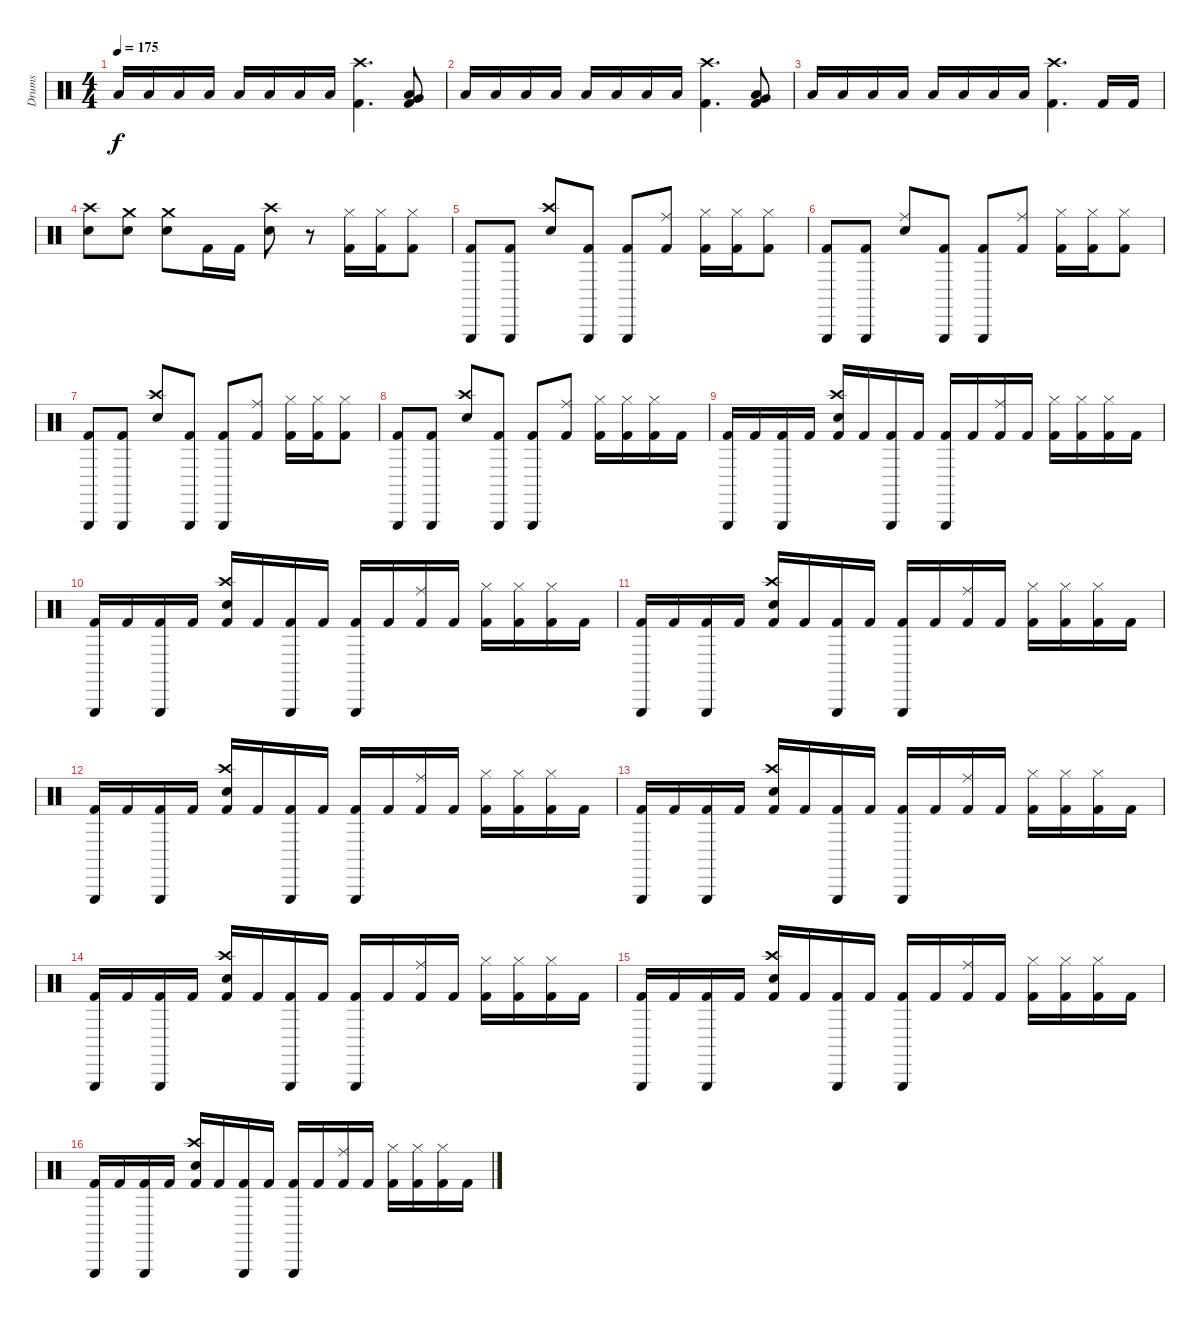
\track ("Drums" "Drums") {instrument percussion}
\staff {score}
\articulation defaults
\ts (4 4)
\tempo 175
\clef neutral
\ks c "Low Tom (hit)".16{dy f} "Low Tom (hit)".16 "Low Tom (hit)".16 "Low Tom (hit)".16 "Low Tom (hit)".16 "Low Tom (hit)".16 "Low Tom (hit)".16 "Low Tom (hit)".16
("Crash high (hit)" "Kick (hit) 2").4{d} ("Low Tom (hit)" "Very Low Tom (hit)" "Kick (hit) 2").8 |
"Low Tom (hit)".16 "Low Tom (hit)".16 "Low Tom (hit)".16 "Low Tom (hit)".16 "Low Tom (hit)".16 "Low Tom (hit)".16 "Low Tom (hit)".16 "Low Tom (hit)".16 ("Crash high (hit)" "Kick (hit) 2").4{d} ("Low Tom (hit)" "Very Low Tom (hit)" "Kick (hit) 2").8 |
"Low Tom (hit)".16 "Low Tom (hit)".16 "Low Tom (hit)".16 "Low Tom (hit)".16 "Low Tom (hit)".16 "Low Tom (hit)".16 "Low Tom (hit)".16 "Low Tom (hit)".16 ("Crash high (hit)" "Kick (hit) 2").4{d} "Kick (hit) 2".16 "Kick (hit) 2".16 |
("Crash high (hit)" "Snare (hit) 2").8 ("Crash medium (hit)" "Snare (hit) 2").8 ("Crash medium (hit)" "Snare (hit) 2").8 "Kick (hit) 2".16 "Kick (hit) 2".16 ("Crash high (hit)" "Snare (hit) 2").8 r.8 ("Hi-Hat (closed)" "Kick (hit) 2").16 ("Hi-Hat (closed)" "Kick (hit) 2").16 ("Hi-Hat (closed)" "Kick (hit) 2").8 |
("Triangle (hit)" "Kick (hit) 2").8 ("Triangle (hit)" "Kick (hit) 2").8 ("Crash high (hit)" "Snare (hit) 2").8 ("Triangle (hit)" "Kick (hit) 2").8 ("Triangle (hit)" "Kick (hit) 2").8 ("Ride (middle)" "Kick (hit) 2").8 ("Hi-Hat (closed)" "Kick (hit) 2").16 ("Hi-Hat (closed)" "Kick (hit) 2").16 ("Hi-Hat (closed)" "Kick (hit) 2").8 |
("Triangle (hit)" "Kick (hit) 2").8 ("Triangle (hit)" "Kick (hit) 2").8 ("Ride (middle)" "Snare (hit) 2").8 ("Triangle (hit)" "Kick (hit) 2").8 ("Triangle (hit)" "Kick (hit) 2").8 ("Ride (middle)" "Kick (hit) 2").8 ("Hi-Hat (closed)" "Kick (hit) 2").16 ("Hi-Hat (closed)" "Kick (hit) 2").16 ("Hi-Hat (closed)" "Kick (hit) 2").8 |
("Triangle (hit)" "Kick (hit) 2").8 ("Triangle (hit)" "Kick (hit) 2").8 ("Crash high (hit)" "Snare (hit) 2").8 ("Triangle (hit)" "Kick (hit) 2").8 ("Triangle (hit)" "Kick (hit) 2").8 ("Ride (middle)" "Kick (hit) 2").8 ("Hi-Hat (closed)" "Kick (hit) 2").16 ("Hi-Hat (closed)" "Kick (hit) 2").16 ("Hi-Hat (closed)" "Kick (hit) 2").8 |
("Triangle (hit)" "Kick (hit) 2").8 ("Triangle (hit)" "Kick (hit) 2").8 ("Crash high (hit)" "Snare (hit) 2").8 ("Triangle (hit)" "Kick (hit) 2").8 ("Triangle (hit)" "Kick (hit) 2").8 ("Ride (middle)" "Kick (hit) 2").8 ("Hi-Hat (closed)" "Kick (hit) 2").16 ("Hi-Hat (closed)" "Kick (hit) 2").16 ("Hi-Hat (closed)" "Kick (hit) 2").16 "Kick (hit) 2".16 |
("Triangle (hit)" "Kick (hit) 2").16 "Kick (hit) 2".16 ("Triangle (hit)" "Kick (hit) 2").16 "Kick (hit) 2".16 ("Crash high (hit)" "Snare (hit) 2" "Kick (hit) 2").16 "Kick (hit) 2".16 ("Triangle (hit)" "Kick (hit) 2").16 "Kick (hit) 2".16 ("Triangle (hit)" "Kick (hit) 2").16 "Kick (hit) 2".16 ("Ride (middle)" "Kick (hit) 2").16 "Kick (hit) 2".16 ("Hi-Hat (closed)" "Kick (hit) 2").16 ("Hi-Hat (closed)" "Kick (hit) 2").16 ("Hi-Hat (closed)" "Kick (hit) 2").16 "Kick (hit) 2".16 |
("Triangle (hit)" "Kick (hit) 2").16 "Kick (hit) 2".16 ("Triangle (hit)" "Kick (hit) 2").16 "Kick (hit) 2".16 ("Crash high (hit)" "Snare (hit) 2" "Kick (hit) 2").16 "Kick (hit) 2".16 ("Triangle (hit)" "Kick (hit) 2").16 "Kick (hit) 2".16 ("Triangle (hit)" "Kick (hit) 2").16 "Kick (hit) 2".16 ("Ride (middle)" "Kick (hit) 2").16 "Kick (hit) 2".16 ("Hi-Hat (closed)" "Kick (hit) 2").16 ("Hi-Hat (closed)" "Kick (hit) 2").16 ("Hi-Hat (closed)" "Kick (hit) 2").16 "Kick (hit) 2".16 |
("Triangle (hit)" "Kick (hit) 2").16 "Kick (hit) 2".16 ("Triangle (hit)" "Kick (hit) 2").16 "Kick (hit) 2".16 ("Crash high (hit)" "Snare (hit) 2" "Kick (hit) 2").16 "Kick (hit) 2".16 ("Triangle (hit)" "Kick (hit) 2").16 "Kick (hit) 2".16 ("Triangle (hit)" "Kick (hit) 2").16 "Kick (hit) 2".16 ("Ride (middle)" "Kick (hit) 2").16 "Kick (hit) 2".16 ("Hi-Hat (closed)" "Kick (hit) 2").16 ("Hi-Hat (closed)" "Kick (hit) 2").16 ("Hi-Hat (closed)" "Kick (hit) 2").16 "Kick (hit) 2".16 |
("Triangle (hit)" "Kick (hit) 2").16 "Kick (hit) 2".16 ("Triangle (hit)" "Kick (hit) 2").16 "Kick (hit) 2".16 ("Crash high (hit)" "Snare (hit) 2" "Kick (hit) 2").16 "Kick (hit) 2".16 ("Triangle (hit)" "Kick (hit) 2").16 "Kick (hit) 2".16 ("Triangle (hit)" "Kick (hit) 2").16 "Kick (hit) 2".16 ("Ride (middle)" "Kick (hit) 2").16 "Kick (hit) 2".16 ("Hi-Hat (closed)" "Kick (hit) 2").16 ("Hi-Hat (closed)" "Kick (hit) 2").16 ("Hi-Hat (closed)" "Kick (hit) 2").16 "Kick (hit) 2".16 |
("Triangle (hit)" "Kick (hit) 2").16 "Kick (hit) 2".16 ("Triangle (hit)" "Kick (hit) 2").16 "Kick (hit) 2".16 ("Crash high (hit)" "Snare (hit) 2" "Kick (hit) 2").16 "Kick (hit) 2".16 ("Triangle (hit)" "Kick (hit) 2").16 "Kick (hit) 2".16 ("Triangle (hit)" "Kick (hit) 2").16 "Kick (hit) 2".16 ("Ride (middle)" "Kick (hit) 2").16 "Kick (hit) 2".16 ("Hi-Hat (closed)" "Kick (hit) 2").16 ("Hi-Hat (closed)" "Kick (hit) 2").16 ("Hi-Hat (closed)" "Kick (hit) 2").16 "Kick (hit) 2".16 |
("Triangle (hit)" "Kick (hit) 2").16 "Kick (hit) 2".16 ("Triangle (hit)" "Kick (hit) 2").16 "Kick (hit) 2".16 ("Crash high (hit)" "Snare (hit) 2" "Kick (hit) 2").16 "Kick (hit) 2".16 ("Triangle (hit)" "Kick (hit) 2").16 "Kick (hit) 2".16 ("Triangle (hit)" "Kick (hit) 2").16 "Kick (hit) 2".16 ("Ride (middle)" "Kick (hit) 2").16 "Kick (hit) 2".16 ("Hi-Hat (closed)" "Kick (hit) 2").16 ("Hi-Hat (closed)" "Kick (hit) 2").16 ("Hi-Hat (closed)" "Kick (hit) 2").16 "Kick (hit) 2".16 |
("Triangle (hit)" "Kick (hit) 2").16 "Kick (hit) 2".16 ("Triangle (hit)" "Kick (hit) 2").16 "Kick (hit) 2".16 ("Crash high (hit)" "Snare (hit) 2" "Kick (hit) 2").16 "Kick (hit) 2".16 ("Triangle (hit)" "Kick (hit) 2").16 "Kick (hit) 2".16 ("Triangle (hit)" "Kick (hit) 2").16 "Kick (hit) 2".16 ("Ride (middle)" "Kick (hit) 2").16 "Kick (hit) 2".16 ("Hi-Hat (closed)" "Kick (hit) 2").16 ("Hi-Hat (closed)" "Kick (hit) 2").16 ("Hi-Hat (closed)" "Kick (hit) 2").16 "Kick (hit) 2".16 |
("Triangle (hit)" "Kick (hit) 2").16 "Kick (hit) 2".16 ("Triangle (hit)" "Kick (hit) 2").16 "Kick (hit) 2".16 ("Crash high (hit)" "Snare (hit) 2" "Kick (hit) 2").16 "Kick (hit) 2".16 ("Triangle (hit)" "Kick (hit) 2").16 "Kick (hit) 2".16 ("Triangle (hit)" "Kick (hit) 2").16 "Kick (hit) 2".16 ("Ride (middle)" "Kick (hit) 2").16 "Kick (hit) 2".16 ("Hi-Hat (closed)" "Kick (hit) 2").16 ("Hi-Hat (closed)" "Kick (hit) 2").16 ("Hi-Hat (closed)" "Kick (hit) 2").16 "Kick (hit) 2".16
